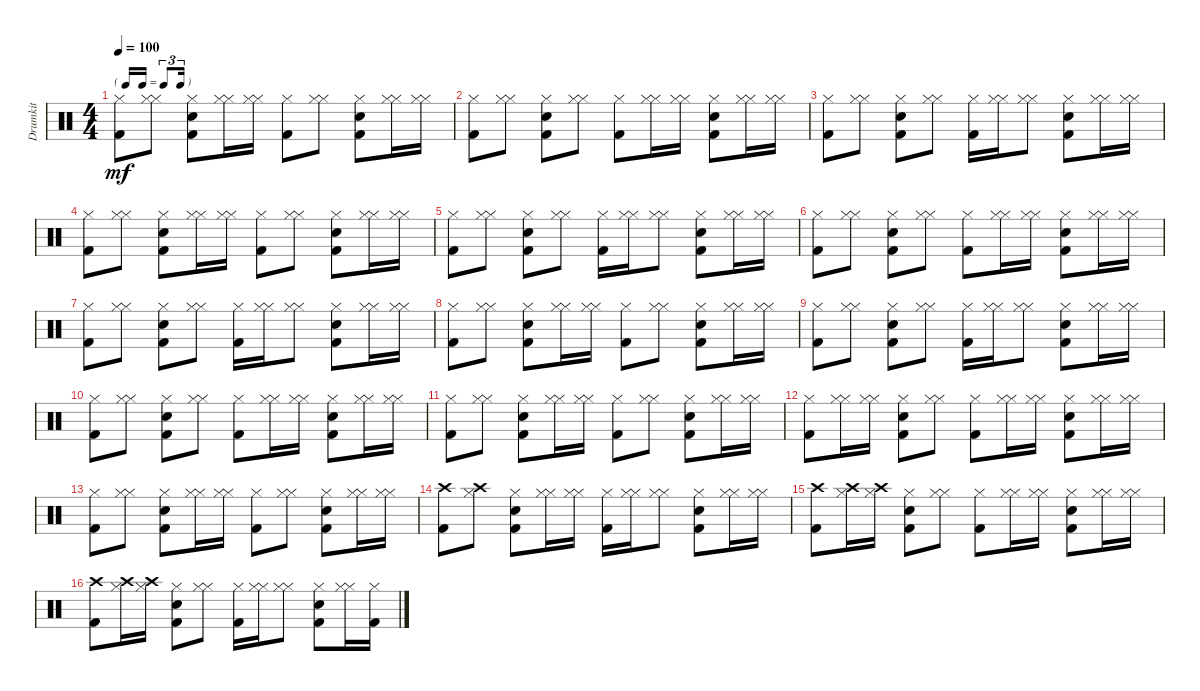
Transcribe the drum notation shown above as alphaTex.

\track ("Drumkit" "Drumkit") {instrument percussion}
\staff {score}
\articulation defaults
\ts (4 4)
\tf triplet16th
\tempo 100
\clef neutral
\ks c
("Hi-Hat (closed)" "Kick (hit) 2").8{dy mf} ("Hi-Hat (closed)" "Hi-Hat (closed)").8 ("Snare (hit) 2" "Hi-Hat (closed)" "Kick (hit) 2").8 ("Hi-Hat (closed)" "Hi-Hat (closed)").16 ("Hi-Hat (closed)" "Hi-Hat (closed)").16 ("Hi-Hat (closed)" "Kick (hit) 2").8 ("Hi-Hat (closed)" "Hi-Hat (closed)").8 ("Snare (hit) 2" "Hi-Hat (closed)" "Kick (hit) 2").8 ("Hi-Hat (closed)" "Hi-Hat (closed)").16 ("Hi-Hat (closed)" "Hi-Hat (closed)").16 |
("Hi-Hat (closed)" "Kick (hit) 2").8 ("Hi-Hat (closed)" "Hi-Hat (closed)").8 ("Snare (hit) 2" "Hi-Hat (closed)" "Kick (hit) 2").8 ("Hi-Hat (closed)" "Hi-Hat (closed)").8 ("Hi-Hat (closed)" "Kick (hit) 2").8 ("Hi-Hat (closed)" "Hi-Hat (closed)").16 ("Hi-Hat (closed)" "Hi-Hat (closed)").16 ("Snare (hit) 2" "Hi-Hat (closed)" "Kick (hit) 2").8 ("Hi-Hat (closed)" "Hi-Hat (closed)").16 ("Hi-Hat (closed)" "Hi-Hat (closed)").16 |
("Hi-Hat (closed)" "Kick (hit) 2").8 ("Hi-Hat (closed)" "Hi-Hat (closed)").8 ("Snare (hit) 2" "Hi-Hat (closed)" "Kick (hit) 2").8 ("Hi-Hat (closed)" "Hi-Hat (closed)").8 ("Hi-Hat (closed)" "Kick (hit) 2").16 ("Hi-Hat (closed)" "Hi-Hat (closed)").16 ("Hi-Hat (closed)" "Hi-Hat (closed)").8 ("Snare (hit) 2" "Hi-Hat (closed)" "Kick (hit) 2").8 ("Hi-Hat (closed)" "Hi-Hat (closed)").16 ("Hi-Hat (closed)" "Hi-Hat (closed)").16 |
("Hi-Hat (closed)" "Kick (hit) 2").8 ("Hi-Hat (closed)" "Hi-Hat (closed)").8 ("Snare (hit) 2" "Hi-Hat (closed)" "Kick (hit) 2").8 ("Hi-Hat (closed)" "Hi-Hat (closed)").16 ("Hi-Hat (closed)" "Hi-Hat (closed)").16 ("Hi-Hat (closed)" "Kick (hit) 2").8 ("Hi-Hat (closed)" "Hi-Hat (closed)").8 ("Snare (hit) 2" "Hi-Hat (closed)" "Kick (hit) 2").8 ("Hi-Hat (closed)" "Hi-Hat (closed)").16 ("Hi-Hat (closed)" "Hi-Hat (closed)").16 |
("Hi-Hat (closed)" "Kick (hit) 2").8 ("Hi-Hat (closed)" "Hi-Hat (closed)").8 ("Snare (hit) 2" "Hi-Hat (closed)" "Kick (hit) 2").8 ("Hi-Hat (closed)" "Hi-Hat (closed)").8 ("Hi-Hat (closed)" "Kick (hit) 2").16 ("Hi-Hat (closed)" "Hi-Hat (closed)").16 ("Hi-Hat (closed)" "Hi-Hat (closed)").8 ("Snare (hit) 2" "Hi-Hat (closed)" "Kick (hit) 2").8 ("Hi-Hat (closed)" "Hi-Hat (closed)").16 ("Hi-Hat (closed)" "Hi-Hat (closed)").16 |
("Hi-Hat (closed)" "Kick (hit) 2").8 ("Hi-Hat (closed)" "Hi-Hat (closed)").8 ("Snare (hit) 2" "Hi-Hat (closed)" "Kick (hit) 2").8 ("Hi-Hat (closed)" "Hi-Hat (closed)").8 ("Hi-Hat (closed)" "Kick (hit) 2").8 ("Hi-Hat (closed)" "Hi-Hat (closed)").16 ("Hi-Hat (closed)" "Hi-Hat (closed)").16 ("Snare (hit) 2" "Hi-Hat (closed)" "Kick (hit) 2").8 ("Hi-Hat (closed)" "Hi-Hat (closed)").16 ("Hi-Hat (closed)" "Hi-Hat (closed)").16 |
("Hi-Hat (closed)" "Kick (hit) 2").8 ("Hi-Hat (closed)" "Hi-Hat (closed)").8 ("Snare (hit) 2" "Hi-Hat (closed)" "Kick (hit) 2").8 ("Hi-Hat (closed)" "Hi-Hat (closed)").8 ("Hi-Hat (closed)" "Kick (hit) 2").16 ("Hi-Hat (closed)" "Hi-Hat (closed)").16 ("Hi-Hat (closed)" "Hi-Hat (closed)").8 ("Snare (hit) 2" "Hi-Hat (closed)" "Kick (hit) 2").8 ("Hi-Hat (closed)" "Hi-Hat (closed)").16 ("Hi-Hat (closed)" "Hi-Hat (closed)").16 |
("Hi-Hat (closed)" "Kick (hit) 2").8 ("Hi-Hat (closed)" "Hi-Hat (closed)").8 ("Snare (hit) 2" "Hi-Hat (closed)" "Kick (hit) 2").8 ("Hi-Hat (closed)" "Hi-Hat (closed)").16 ("Hi-Hat (closed)" "Hi-Hat (closed)").16 ("Hi-Hat (closed)" "Kick (hit) 2").8 ("Hi-Hat (closed)" "Hi-Hat (closed)").8 ("Snare (hit) 2" "Hi-Hat (closed)" "Kick (hit) 2").8 ("Hi-Hat (closed)" "Hi-Hat (closed)").16 ("Hi-Hat (closed)" "Hi-Hat (closed)").16 |
("Hi-Hat (closed)" "Kick (hit) 2").8 ("Hi-Hat (closed)" "Hi-Hat (closed)").8 ("Snare (hit) 2" "Hi-Hat (closed)" "Kick (hit) 2").8 ("Hi-Hat (closed)" "Hi-Hat (closed)").8 ("Hi-Hat (closed)" "Kick (hit) 2").16 ("Hi-Hat (closed)" "Hi-Hat (closed)").16 ("Hi-Hat (closed)" "Hi-Hat (closed)").8 ("Snare (hit) 2" "Hi-Hat (closed)" "Kick (hit) 2").8 ("Hi-Hat (closed)" "Hi-Hat (closed)").16 ("Hi-Hat (closed)" "Hi-Hat (closed)").16 |
("Hi-Hat (closed)" "Kick (hit) 2").8 ("Hi-Hat (closed)" "Hi-Hat (closed)").8 ("Snare (hit) 2" "Hi-Hat (closed)" "Kick (hit) 2").8 ("Hi-Hat (closed)" "Hi-Hat (closed)").8 ("Hi-Hat (closed)" "Kick (hit) 2").8 ("Hi-Hat (closed)" "Hi-Hat (closed)").16 ("Hi-Hat (closed)" "Hi-Hat (closed)").16 ("Snare (hit) 2" "Hi-Hat (closed)" "Kick (hit) 2").8 ("Hi-Hat (closed)" "Hi-Hat (closed)").16 ("Hi-Hat (closed)" "Hi-Hat (closed)").16 |
("Hi-Hat (closed)" "Kick (hit) 2").8 ("Hi-Hat (closed)" "Hi-Hat (closed)").8 ("Snare (hit) 2" "Hi-Hat (closed)" "Kick (hit) 2").8 ("Hi-Hat (closed)" "Hi-Hat (closed)").16 ("Hi-Hat (closed)" "Hi-Hat (closed)").16 ("Hi-Hat (closed)" "Kick (hit) 2").8 ("Hi-Hat (closed)" "Hi-Hat (closed)").8 ("Snare (hit) 2" "Hi-Hat (closed)" "Kick (hit) 2").8 ("Hi-Hat (closed)" "Hi-Hat (closed)").16 ("Hi-Hat (closed)" "Hi-Hat (closed)").16 |
("Hi-Hat (closed)" "Kick (hit) 2").8 ("Hi-Hat (closed)" "Hi-Hat (closed)").16 ("Hi-Hat (closed)" "Hi-Hat (closed)").16 ("Snare (hit) 2" "Hi-Hat (closed)" "Kick (hit) 2").8 ("Hi-Hat (closed)" "Hi-Hat (closed)").8 ("Hi-Hat (closed)" "Kick (hit) 2").8 ("Hi-Hat (closed)" "Hi-Hat (closed)").16 ("Hi-Hat (closed)" "Hi-Hat (closed)").16 ("Snare (hit) 2" "Hi-Hat (closed)" "Kick (hit) 2").8 ("Hi-Hat (closed)" "Hi-Hat (closed)").16 ("Hi-Hat (closed)" "Hi-Hat (closed)").16 |
("Hi-Hat (closed)" "Kick (hit) 2").8 ("Hi-Hat (closed)" "Hi-Hat (closed)").8 ("Snare (hit) 2" "Hi-Hat (closed)" "Kick (hit) 2").8 ("Hi-Hat (closed)" "Hi-Hat (closed)").16 ("Hi-Hat (closed)" "Hi-Hat (closed)").16 ("Hi-Hat (closed)" "Kick (hit) 2").8 ("Hi-Hat (closed)" "Hi-Hat (closed)").8 ("Snare (hit) 2" "Hi-Hat (closed)" "Kick (hit) 2").8 ("Hi-Hat (closed)" "Hi-Hat (closed)").16 ("Hi-Hat (closed)" "Hi-Hat (closed)").16 |
("Crash high (hit)" "Kick (hit) 2").8 ("Crash high (hit)" "Hi-Hat (closed)").8 ("Snare (hit) 2" "Hi-Hat (closed)" "Kick (hit) 2").8 ("Hi-Hat (closed)" "Hi-Hat (closed)").16 ("Hi-Hat (closed)" "Hi-Hat (closed)").16 ("Hi-Hat (closed)" "Kick (hit) 2").16 ("Hi-Hat (closed)" "Hi-Hat (closed)").16 ("Hi-Hat (closed)" "Hi-Hat (closed)").8 ("Snare (hit) 2" "Hi-Hat (closed)" "Kick (hit) 2").8 ("Hi-Hat (closed)" "Hi-Hat (closed)").16 ("Hi-Hat (closed)" "Hi-Hat (closed)").16 |
("Crash high (hit)" "Kick (hit) 2").8 ("Crash high (hit)" "Hi-Hat (closed)").16 ("Crash high (hit)" "Hi-Hat (closed)").16 ("Snare (hit) 2" "Hi-Hat (closed)" "Kick (hit) 2").8 ("Hi-Hat (closed)" "Hi-Hat (closed)").8 ("Hi-Hat (closed)" "Kick (hit) 2").8 ("Hi-Hat (closed)" "Hi-Hat (closed)").16 ("Hi-Hat (closed)" "Hi-Hat (closed)").16 ("Snare (hit) 2" "Hi-Hat (closed)" "Kick (hit) 2").8 ("Hi-Hat (closed)" "Hi-Hat (closed)").16 ("Hi-Hat (closed)" "Hi-Hat (closed)").16 |
("Crash high (hit)" "Kick (hit) 2").8 ("Crash high (hit)" "Hi-Hat (closed)").16 ("Crash high (hit)" "Hi-Hat (closed)").16 ("Snare (hit) 2" "Hi-Hat (closed)" "Kick (hit) 2").8 ("Hi-Hat (closed)" "Hi-Hat (closed)").8 ("Hi-Hat (closed)" "Kick (hit) 2").16 ("Hi-Hat (closed)" "Hi-Hat (closed)").16 ("Hi-Hat (closed)" "Hi-Hat (closed)").8 ("Snare (hit) 2" "Hi-Hat (closed)" "Kick (hit) 2").8 ("Hi-Hat (closed)" "Hi-Hat (closed)").16 ("Kick (hit) 2" "Hi-Hat (closed)").16
